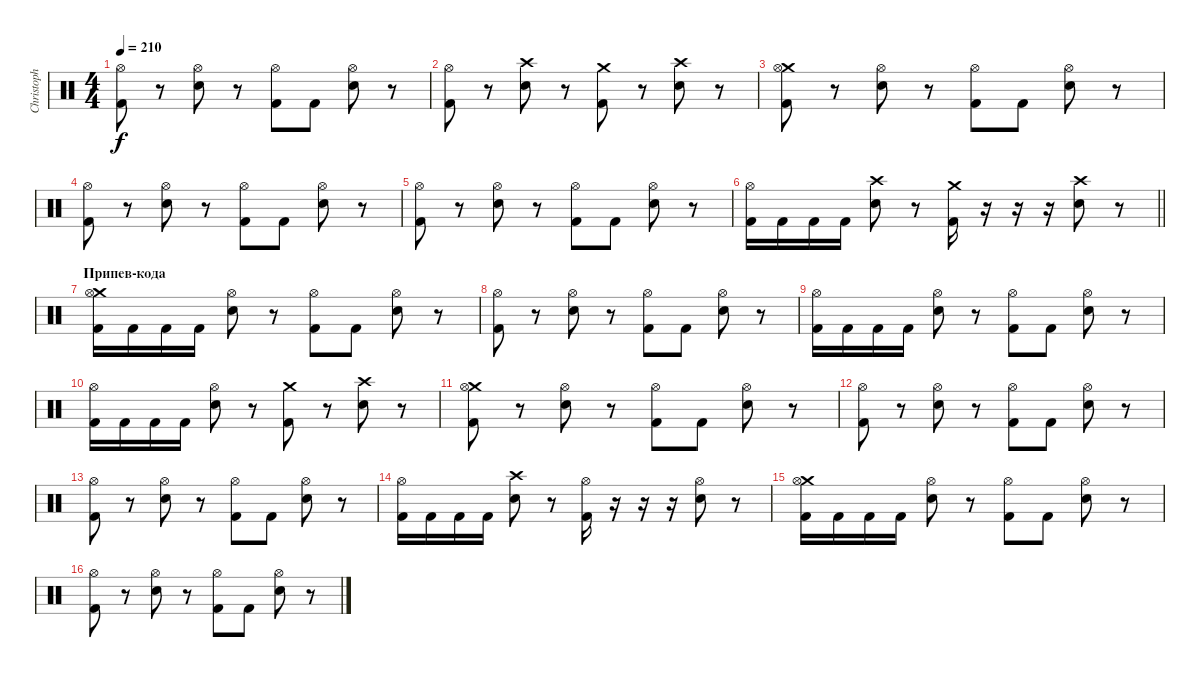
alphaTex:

\track ("Christoph Schneider" "Christoph ") {instrument percussion}
\staff {score}
\articulation defaults
\ts (4 4)
\tempo 210
\clef neutral
\ks c
("Hi-Hat (open)" "Kick (hit) 2").8{dy f} r.8 ("Hi-Hat (open)" "Electric Snare (hit)").8 r.8 ("Hi-Hat (open)" "Kick (hit) 2").8 "Kick (hit) 2".8 ("Hi-Hat (open)" "Electric Snare (hit)").8 r.8 |
("Hi-Hat (open)" "Kick (hit) 2").8 r.8 ("Crash high (hit)" "Electric Snare (hit)").8 r.8 ("Crash medium (hit)" "Kick (hit) 2").8 r.8 ("Crash high (hit)" "Electric Snare (hit)").8 r.8 |
("Crash medium (hit)" "Kick (hit) 2" "Hi-Hat (open)").8 r.8 ("Hi-Hat (open)" "Electric Snare (hit)").8 r.8 ("Hi-Hat (open)" "Kick (hit) 2").8 "Kick (hit) 2".8 ("Hi-Hat (open)" "Electric Snare (hit)").8 r.8 |
("Hi-Hat (open)" "Kick (hit) 2").8 r.8 ("Hi-Hat (open)" "Electric Snare (hit)").8 r.8 ("Hi-Hat (open)" "Kick (hit) 2").8 "Kick (hit) 2".8 ("Hi-Hat (open)" "Electric Snare (hit)").8 r.8 |
("Hi-Hat (open)" "Kick (hit) 2").8 r.8 ("Hi-Hat (open)" "Electric Snare (hit)").8 r.8 ("Hi-Hat (open)" "Kick (hit) 2").8 "Kick (hit) 2".8 ("Hi-Hat (open)" "Electric Snare (hit)").8 r.8 |
\barLineRight lightlight
("Hi-Hat (open)" "Kick (hit) 2").16 "Kick (hit) 2".16 "Kick (hit) 2".16 "Kick (hit) 2".16 ("Crash high (hit)" "Electric Snare (hit)").8 r.8 ("Crash medium (hit)" "Kick (hit) 2").16 r.16 r.16 r.16 ("Crash high (hit)" "Electric Snare (hit)").8 r.8 |
\section ("" "Припев-кода")
("Crash medium (hit)" "Kick (hit) 2" "Hi-Hat (open)").16 "Kick (hit) 2".16 "Kick (hit) 2".16 "Kick (hit) 2".16 ("Hi-Hat (open)" "Electric Snare (hit)").8 r.8 ("Hi-Hat (open)" "Kick (hit) 2").8 "Kick (hit) 2".8 ("Hi-Hat (open)" "Electric Snare (hit)").8 r.8 |
("Hi-Hat (open)" "Kick (hit) 2").8 r.8 ("Hi-Hat (open)" "Electric Snare (hit)").8 r.8 ("Hi-Hat (open)" "Kick (hit) 2").8 "Kick (hit) 2".8 ("Hi-Hat (open)" "Electric Snare (hit)").8 r.8 |
("Hi-Hat (open)" "Kick (hit) 2").16 "Kick (hit) 2".16 "Kick (hit) 2".16 "Kick (hit) 2".16 ("Hi-Hat (open)" "Electric Snare (hit)").8 r.8 ("Hi-Hat (open)" "Kick (hit) 2").8 "Kick (hit) 2".8 ("Hi-Hat (open)" "Electric Snare (hit)").8 r.8 |
("Hi-Hat (open)" "Kick (hit) 2").16 "Kick (hit) 2".16 "Kick (hit) 2".16 "Kick (hit) 2".16 ("Hi-Hat (open)" "Electric Snare (hit)").8 r.8 ("Crash medium (hit)" "Kick (hit) 2").8 r.8 ("Crash high (hit)" "Electric Snare (hit)").8 r.8 |
("Crash medium (hit)" "Kick (hit) 2" "Hi-Hat (open)").8 r.8 ("Hi-Hat (open)" "Electric Snare (hit)").8 r.8 ("Hi-Hat (open)" "Kick (hit) 2").8 "Kick (hit) 2".8 ("Hi-Hat (open)" "Electric Snare (hit)").8 r.8 |
("Hi-Hat (open)" "Kick (hit) 2").8 r.8 ("Hi-Hat (open)" "Electric Snare (hit)").8 r.8 ("Hi-Hat (open)" "Kick (hit) 2").8 "Kick (hit) 2".8 ("Hi-Hat (open)" "Electric Snare (hit)").8 r.8 |
("Hi-Hat (open)" "Kick (hit) 2").8 r.8 ("Hi-Hat (open)" "Electric Snare (hit)").8 r.8 ("Hi-Hat (open)" "Kick (hit) 2").8 "Kick (hit) 2".8 ("Hi-Hat (open)" "Electric Snare (hit)").8 r.8 |
("Hi-Hat (open)" "Kick (hit) 2").16 "Kick (hit) 2".16 "Kick (hit) 2".16 "Kick (hit) 2".16 ("Crash high (hit)" "Electric Snare (hit)").8 r.8 ("Hi-Hat (open)" "Kick (hit) 2").16 r.16 r.16 r.16 ("Hi-Hat (open)" "Electric Snare (hit)").8 r.8 |
("Crash medium (hit)" "Kick (hit) 2" "Hi-Hat (open)").16 "Kick (hit) 2".16 "Kick (hit) 2".16 "Kick (hit) 2".16 ("Hi-Hat (open)" "Electric Snare (hit)").8 r.8 ("Hi-Hat (open)" "Kick (hit) 2").8 "Kick (hit) 2".8 ("Hi-Hat (open)" "Electric Snare (hit)").8 r.8 |
("Hi-Hat (open)" "Kick (hit) 2").8 r.8 ("Hi-Hat (open)" "Electric Snare (hit)").8 r.8 ("Hi-Hat (open)" "Kick (hit) 2").8 "Kick (hit) 2".8 ("Hi-Hat (open)" "Electric Snare (hit)").8 r.8
